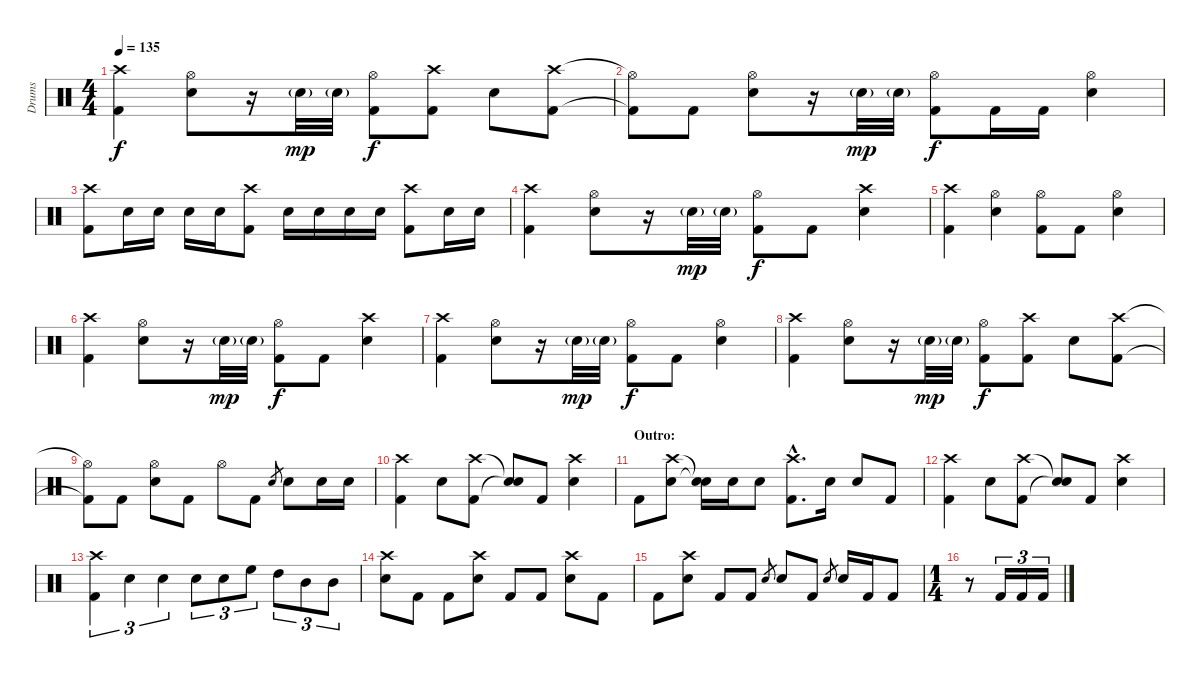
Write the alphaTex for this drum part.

\track ("Drums" "Drums") {instrument percussion}
\staff {score}
\articulation defaults
\ts (4 4)
\tempo 135
\clef neutral
\ks c
("Crash high (hit)" "Kick (hit) 2").4{dy f} ("Hi-Hat (open)" "Snare (hit) 2").8 r.16 "Snare (hit) 2"{g}.32{dy mp} "Snare (hit) 2"{g}.32 ("Hi-Hat (open)" "Kick (hit) 2").8{dy f} ("Crash high (hit)" "Kick (hit) 2").8 "Snare (hit) 2".8 ("Crash high (hit)" "Kick (hit) 2").8 |
("Hi-Hat (open)"{t} "Kick (hit) 2"{t}).8 "Kick (hit) 2".8 ("Hi-Hat (open)" "Snare (hit) 2").8 r.16 "Snare (hit) 2"{g}.32{dy mp} "Snare (hit) 2"{g}.32 ("Hi-Hat (open)" "Kick (hit) 2").8{dy f} "Kick (hit) 2".16 "Kick (hit) 2".16 ("Hi-Hat (open)" "Snare (hit) 2").4 |
("Crash high (hit)" "Kick (hit) 2").8 "Snare (hit) 2".16 "Snare (hit) 2".16 "Snare (hit) 2".16 "Snare (hit) 2".16 ("Crash high (hit)" "Kick (hit) 2").8 "Snare (hit) 2".16 "Snare (hit) 2".16 "Snare (hit) 2".16 "Snare (hit) 2".16 ("Crash high (hit)" "Kick (hit) 2").8 "Snare (hit) 2".16 "Snare (hit) 2".16 |
("Crash high (hit)" "Kick (hit) 2").4 ("Hi-Hat (open)" "Snare (hit) 2").8 r.16 "Snare (hit) 2"{g}.32{dy mp} "Snare (hit) 2"{g}.32 ("Hi-Hat (open)" "Kick (hit) 2").8{dy f} "Kick (hit) 2".8 ("Crash high (hit)" "Snare (hit) 2").4 |
("Crash high (hit)" "Kick (hit) 2").4 ("Hi-Hat (open)" "Snare (hit) 2").4 ("Hi-Hat (open)" "Kick (hit) 2").8 "Kick (hit) 2".8 ("Hi-Hat (open)" "Snare (hit) 2").4 |
("Crash high (hit)" "Kick (hit) 2").4 ("Hi-Hat (open)" "Snare (hit) 2").8 r.16 "Snare (hit) 2"{g}.32{dy mp} "Snare (hit) 2"{g}.32 ("Hi-Hat (open)" "Kick (hit) 2").8{dy f} "Kick (hit) 2".8 ("Crash high (hit)" "Snare (hit) 2").4 |
("Crash high (hit)" "Kick (hit) 2").4 ("Hi-Hat (open)" "Snare (hit) 2").8 r.16 "Snare (hit) 2"{g}.32{dy mp} "Snare (hit) 2"{g}.32 ("Hi-Hat (open)" "Kick (hit) 2").8{dy f} "Kick (hit) 2".8 ("Hi-Hat (open)" "Snare (hit) 2").4 |
("Crash high (hit)" "Kick (hit) 2").4 ("Hi-Hat (open)" "Snare (hit) 2").8 r.16 "Snare (hit) 2"{g}.32{dy mp} "Snare (hit) 2"{g}.32 ("Hi-Hat (open)" "Kick (hit) 2").8{dy f} ("Crash high (hit)" "Kick (hit) 2").8 "Snare (hit) 2".8 ("Crash high (hit)" "Kick (hit) 2").8 |
("Hi-Hat (open)"{t} "Kick (hit) 2"{t}).8 "Kick (hit) 2".8 ("Hi-Hat (open)" "Snare (hit) 2").8 "Kick (hit) 2".8 "Hi-Hat (open)".8 "Kick (hit) 2".8 "Snare (hit) 2".8{gr} "Snare (hit) 2".8 "Snare (hit) 2".16 "Snare (hit) 2".16 |
("Crash high (hit)" "Kick (hit) 2").4 "Snare (hit) 2".8 ("Crash high (hit)" "Kick (hit) 2").8 ("Snare (hit)"{t} "Snare (hit)"{t}).8 "Kick (hit) 2".8 ("Crash high (hit)" "Snare (hit) 2").4 |
\section ("" "Outro:")
"Kick (hit) 2".8 ("Crash high (hit)" "Snare (hit) 2").8 ("Snare (hit)"{t} "Snare (hit)"{t}).16 "Snare (hit) 2".16 "Snare (hit) 2".8 ("Crash high (hit)"{hac} "Kick (hit) 2"{hac}).8{d} "Snare (hit) 2".16 "Snare (hit) 2".8 "Kick (hit) 2".8 |
("Crash high (hit)" "Kick (hit) 2").4 "Snare (hit) 2".8 ("Crash high (hit)" "Kick (hit) 2").8 ("Snare (hit)"{t} "Snare (hit)"{t}).8 "Kick (hit) 2".8 ("Crash high (hit)" "Snare (hit) 2").4 |
("Crash high (hit)" "Kick (hit) 2").4{tu (3 2)} "Snare (hit) 2".4{tu (3 2)} "Snare (hit) 2".4{tu (3 2)} "Snare (hit) 2".8{tu (3 2)} "Snare (hit) 2".8{tu (3 2)} "High Floor Tom (hit)".8{tu (3 2)} "High Tom (hit)".8{tu (3 2)} "Mid Tom (hit)".8{tu (3 2)} "Mid Tom (hit)".8{tu (3 2)} |
("Crash high (hit)" "Snare (hit) 2").8 "Kick (hit) 2".8 "Kick (hit) 2".8 ("Crash high (hit)" "Snare (hit) 2").8 "Kick (hit) 2".8 "Kick (hit) 2".8 ("Crash high (hit)" "Snare (hit) 2").8 "Kick (hit) 2".8 |
"Kick (hit) 2".8 ("Crash high (hit)" "Snare (hit) 2").8 "Kick (hit) 2".8 "Kick (hit) 2".8 "Snare (hit) 2".8{gr} "Snare (hit) 2".8 "Kick (hit) 2".8 "Snare (hit) 2".8{gr} "Snare (hit) 2".16 "Kick (hit) 2".16 "Kick (hit) 2".8 |
\ts (1 4)
r.8 "Kick (hit) 2".16{tu (3 2)} "Kick (hit) 2".16{tu (3 2)} "Kick (hit) 2".16{tu (3 2)}
